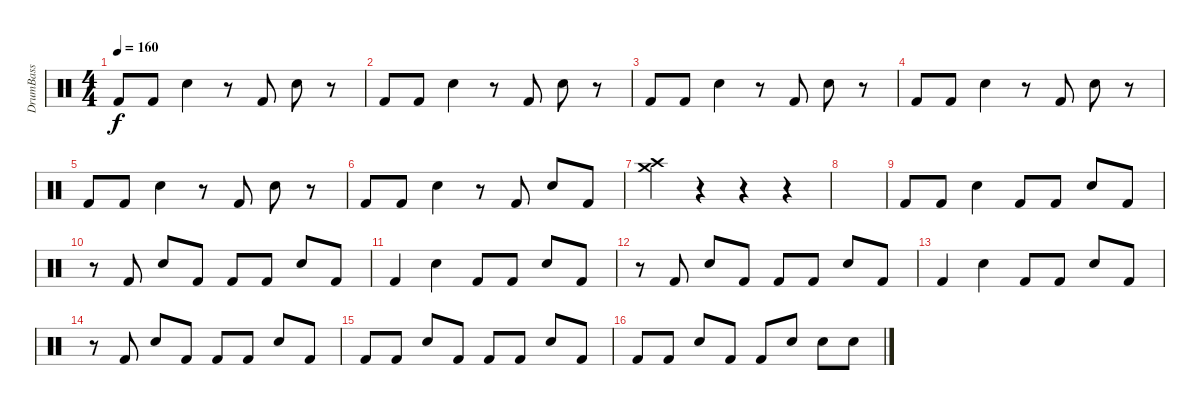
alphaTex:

\track ("DrumBass" "DrumBass") {instrument percussion}
\staff {score}
\articulation defaults
\ts (4 4)
\tempo 160
\clef neutral
\ks c "Kick (hit) 2".8{dy f} "Kick (hit) 2".8 "Snare (hit) 2".4
r.8 "Kick (hit) 2".8 "Snare (hit) 2".8 r.8 |
"Kick (hit) 2".8 "Kick (hit) 2".8 "Snare (hit) 2".4 r.8 "Kick (hit) 2".8 "Snare (hit) 2".8 r.8 |
"Kick (hit) 2".8 "Kick (hit) 2".8 "Snare (hit) 2".4 r.8 "Kick (hit) 2".8 "Snare (hit) 2".8 r.8 |
"Kick (hit) 2".8 "Kick (hit) 2".8 "Snare (hit) 2".4 r.8 "Kick (hit) 2".8 "Snare (hit) 2".8 r.8 |
"Kick (hit) 2".8 "Kick (hit) 2".8 "Snare (hit) 2".4 r.8 "Kick (hit) 2".8 "Snare (hit) 2".8 r.8 |
"Kick (hit) 2".8 "Kick (hit) 2".8 "Snare (hit) 2".4 r.8 "Kick (hit) 2".8 "Snare (hit) 2".8 "Kick (hit) 2".8 |
("Crash medium (hit)" "Crash high (hit)").4 r.4 r.4 r.4 |
|
"Kick (hit) 2".8 "Kick (hit) 2".8 "Snare (hit) 2".4 "Kick (hit) 2".8 "Kick (hit) 2".8 "Snare (hit) 2".8 "Kick (hit) 2".8 |
r.8 "Kick (hit) 2".8 "Snare (hit) 2".8 "Kick (hit) 2".8 "Kick (hit) 2".8 "Kick (hit) 2".8 "Snare (hit) 2".8 "Kick (hit) 2".8 |
"Kick (hit) 2".4 "Snare (hit) 2".4 "Kick (hit) 2".8 "Kick (hit) 2".8 "Snare (hit) 2".8 "Kick (hit) 2".8 |
r.8 "Kick (hit) 2".8 "Snare (hit) 2".8 "Kick (hit) 2".8 "Kick (hit) 2".8 "Kick (hit) 2".8 "Snare (hit) 2".8 "Kick (hit) 2".8 |
"Kick (hit) 2".4 "Snare (hit) 2".4 "Kick (hit) 2".8 "Kick (hit) 2".8 "Snare (hit) 2".8 "Kick (hit) 2".8 |
r.8 "Kick (hit) 2".8 "Snare (hit) 2".8 "Kick (hit) 2".8 "Kick (hit) 2".8 "Kick (hit) 2".8 "Snare (hit) 2".8 "Kick (hit) 2".8 |
"Kick (hit) 2".8 "Kick (hit) 2".8 "Snare (hit) 2".8 "Kick (hit) 2".8 "Kick (hit) 2".8 "Kick (hit) 2".8 "Snare (hit) 2".8 "Kick (hit) 2".8 |
"Kick (hit) 2".8 "Kick (hit) 2".8 "Snare (hit) 2".8 "Kick (hit) 2".8 "Kick (hit) 2".8 "Snare (hit) 2"{tr (38 16)}.8 "Snare (hit) 2"{tr (38 16)}.8 "Snare (hit) 2"{tr (38 16)}.8
